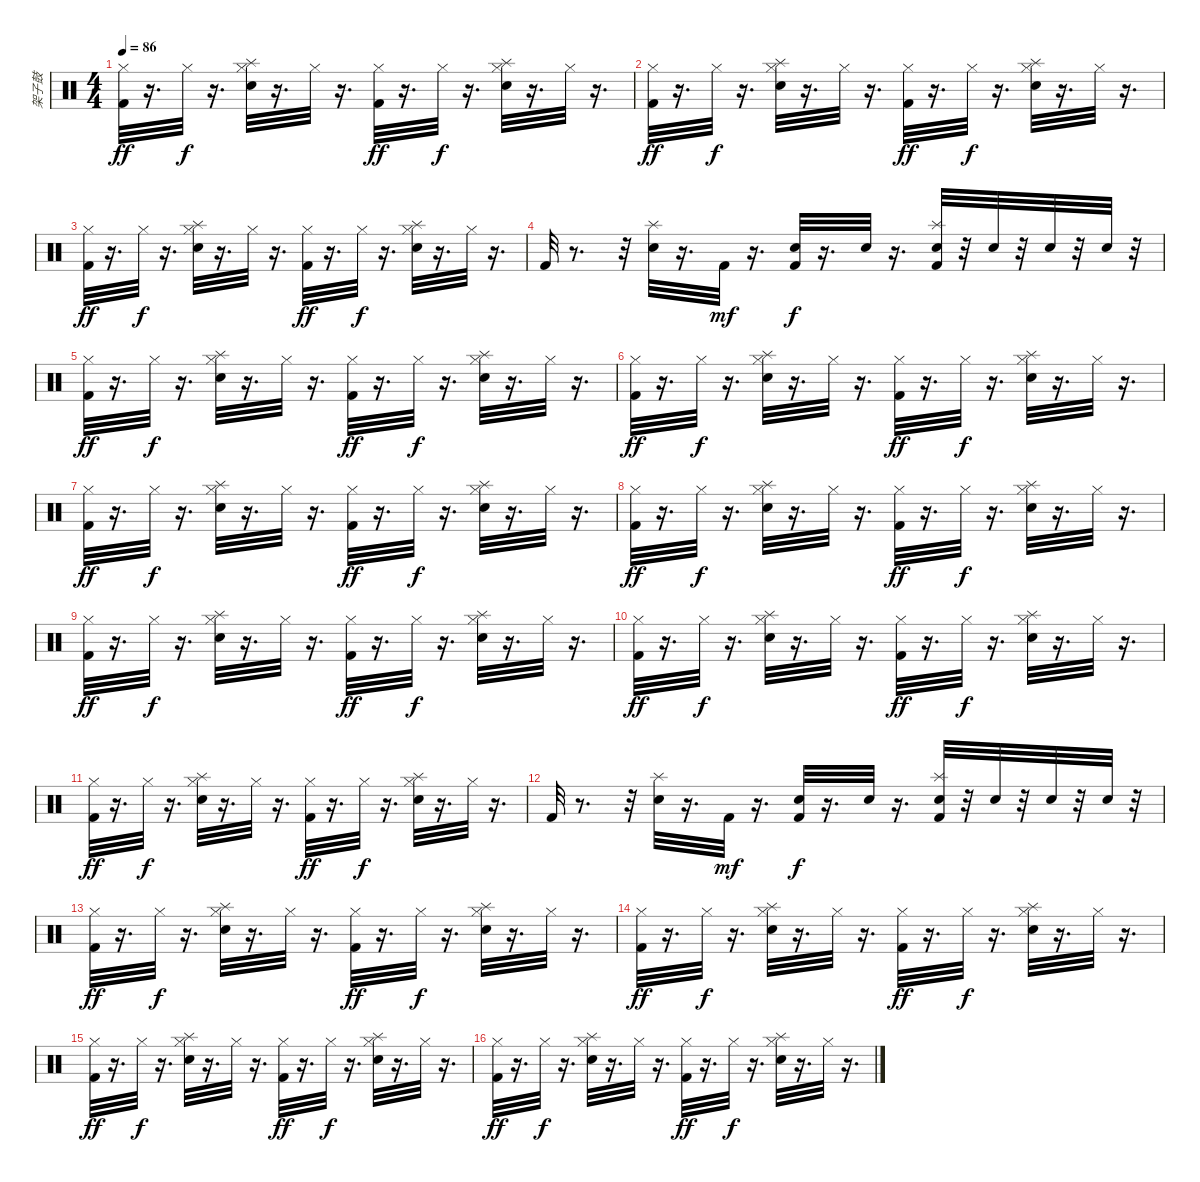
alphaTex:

\track ("架子鼓" "架子鼓") {instrument percussion}
\staff {score}
\articulation defaults
\ts (4 4)
\tempo 86
\clef neutral
\ks c
("Hi-Hat (closed)" "Kick (hit) 2").32{dy ff} r.16{d} "Hi-Hat (closed)".32{dy f} r.16{d} ("Splash (hit)" "Hi-Hat (closed)" "Electric Snare (hit)").32 r.16{d} "Hi-Hat (closed)".32 r.16{d} ("Hi-Hat (closed)" "Kick (hit) 2").32{dy ff} r.16{d} "Hi-Hat (closed)".32{dy f} r.16{d} ("Splash (hit)" "Hi-Hat (closed)" "Electric Snare (hit)").32 r.16{d} "Hi-Hat (closed)".32 r.16{d} |
("Hi-Hat (closed)" "Kick (hit) 2").32{dy ff} r.16{d} "Hi-Hat (closed)".32{dy f} r.16{d} ("Splash (hit)" "Hi-Hat (closed)" "Electric Snare (hit)").32 r.16{d} "Hi-Hat (closed)".32 r.16{d} ("Hi-Hat (closed)" "Kick (hit) 2").32{dy ff} r.16{d} "Hi-Hat (closed)".32{dy f} r.16{d} ("Splash (hit)" "Hi-Hat (closed)" "Electric Snare (hit)").32 r.16{d} "Hi-Hat (closed)".32 r.16{d} |
("Hi-Hat (closed)" "Kick (hit) 2").32{dy ff} r.16{d} "Hi-Hat (closed)".32{dy f} r.16{d} ("Splash (hit)" "Hi-Hat (closed)" "Electric Snare (hit)").32 r.16{d} "Hi-Hat (closed)".32 r.16{d} ("Hi-Hat (closed)" "Kick (hit) 2").32{dy ff} r.16{d} "Hi-Hat (closed)".32{dy f} r.16{d} ("Splash (hit)" "Hi-Hat (closed)" "Electric Snare (hit)").32 r.16{d} "Hi-Hat (closed)".32 r.16{d} |
"Kick (hit) 2".32 r.8{d} r.32 ("Splash (hit)" "Electric Snare (hit)").32 r.16{d} "Kick (hit) 2".32{dy mf} r.16{d} ("Electric Snare (hit)" "Kick (hit) 2").32{dy f} r.16{d} "Electric Snare (hit)".32 r.16{d} ("Splash (hit)" "Electric Snare (hit)" "Kick (hit) 2").32 r.32 "Electric Snare (hit)".32 r.32 "Electric Snare (hit)".32 r.32 "Electric Snare (hit)".32 r.32 |
("Hi-Hat (closed)" "Kick (hit) 2").32{dy ff} r.16{d} "Hi-Hat (closed)".32{dy f} r.16{d} ("Splash (hit)" "Hi-Hat (closed)" "Electric Snare (hit)").32 r.16{d} "Hi-Hat (closed)".32 r.16{d} ("Hi-Hat (closed)" "Kick (hit) 2").32{dy ff} r.16{d} "Hi-Hat (closed)".32{dy f} r.16{d} ("Splash (hit)" "Hi-Hat (closed)" "Electric Snare (hit)").32 r.16{d} "Hi-Hat (closed)".32 r.16{d} |
("Hi-Hat (closed)" "Kick (hit) 2").32{dy ff} r.16{d} "Hi-Hat (closed)".32{dy f} r.16{d} ("Splash (hit)" "Hi-Hat (closed)" "Electric Snare (hit)").32 r.16{d} "Hi-Hat (closed)".32 r.16{d} ("Hi-Hat (closed)" "Kick (hit) 2").32{dy ff} r.16{d} "Hi-Hat (closed)".32{dy f} r.16{d} ("Splash (hit)" "Hi-Hat (closed)" "Electric Snare (hit)").32 r.16{d} "Hi-Hat (closed)".32 r.16{d} |
("Hi-Hat (closed)" "Kick (hit) 2").32{dy ff} r.16{d} "Hi-Hat (closed)".32{dy f} r.16{d} ("Splash (hit)" "Hi-Hat (closed)" "Electric Snare (hit)").32 r.16{d} "Hi-Hat (closed)".32 r.16{d} ("Hi-Hat (closed)" "Kick (hit) 2").32{dy ff} r.16{d} "Hi-Hat (closed)".32{dy f} r.16{d} ("Splash (hit)" "Hi-Hat (closed)" "Electric Snare (hit)").32 r.16{d} "Hi-Hat (closed)".32 r.16{d} |
("Hi-Hat (closed)" "Kick (hit) 2").32{dy ff} r.16{d} "Hi-Hat (closed)".32{dy f} r.16{d} ("Splash (hit)" "Hi-Hat (closed)" "Electric Snare (hit)").32 r.16{d} "Hi-Hat (closed)".32 r.16{d} ("Hi-Hat (closed)" "Kick (hit) 2").32{dy ff} r.16{d} "Hi-Hat (closed)".32{dy f} r.16{d} ("Splash (hit)" "Hi-Hat (closed)" "Electric Snare (hit)").32 r.16{d} "Hi-Hat (closed)".32 r.16{d} |
("Hi-Hat (closed)" "Kick (hit) 2").32{dy ff} r.16{d} "Hi-Hat (closed)".32{dy f} r.16{d} ("Splash (hit)" "Hi-Hat (closed)" "Electric Snare (hit)").32 r.16{d} "Hi-Hat (closed)".32 r.16{d} ("Hi-Hat (closed)" "Kick (hit) 2").32{dy ff} r.16{d} "Hi-Hat (closed)".32{dy f} r.16{d} ("Splash (hit)" "Hi-Hat (closed)" "Electric Snare (hit)").32 r.16{d} "Hi-Hat (closed)".32 r.16{d} |
("Hi-Hat (closed)" "Kick (hit) 2").32{dy ff} r.16{d} "Hi-Hat (closed)".32{dy f} r.16{d} ("Splash (hit)" "Hi-Hat (closed)" "Electric Snare (hit)").32 r.16{d} "Hi-Hat (closed)".32 r.16{d} ("Hi-Hat (closed)" "Kick (hit) 2").32{dy ff} r.16{d} "Hi-Hat (closed)".32{dy f} r.16{d} ("Splash (hit)" "Hi-Hat (closed)" "Electric Snare (hit)").32 r.16{d} "Hi-Hat (closed)".32 r.16{d} |
("Hi-Hat (closed)" "Kick (hit) 2").32{dy ff} r.16{d} "Hi-Hat (closed)".32{dy f} r.16{d} ("Splash (hit)" "Hi-Hat (closed)" "Electric Snare (hit)").32 r.16{d} "Hi-Hat (closed)".32 r.16{d} ("Hi-Hat (closed)" "Kick (hit) 2").32{dy ff} r.16{d} "Hi-Hat (closed)".32{dy f} r.16{d} ("Splash (hit)" "Hi-Hat (closed)" "Electric Snare (hit)").32 r.16{d} "Hi-Hat (closed)".32 r.16{d} |
"Kick (hit) 2".32 r.8{d} r.32 ("Splash (hit)" "Electric Snare (hit)").32 r.16{d} "Kick (hit) 2".32{dy mf} r.16{d} ("Electric Snare (hit)" "Kick (hit) 2").32{dy f} r.16{d} "Electric Snare (hit)".32 r.16{d} ("Splash (hit)" "Electric Snare (hit)" "Kick (hit) 2").32 r.32 "Electric Snare (hit)".32 r.32 "Electric Snare (hit)".32 r.32 "Electric Snare (hit)".32 r.32 |
("Hi-Hat (closed)" "Kick (hit) 2").32{dy ff} r.16{d} "Hi-Hat (closed)".32{dy f} r.16{d} ("Splash (hit)" "Hi-Hat (closed)" "Electric Snare (hit)").32 r.16{d} "Hi-Hat (closed)".32 r.16{d} ("Hi-Hat (closed)" "Kick (hit) 2").32{dy ff} r.16{d} "Hi-Hat (closed)".32{dy f} r.16{d} ("Splash (hit)" "Hi-Hat (closed)" "Electric Snare (hit)").32 r.16{d} "Hi-Hat (closed)".32 r.16{d} |
("Hi-Hat (closed)" "Kick (hit) 2").32{dy ff} r.16{d} "Hi-Hat (closed)".32{dy f} r.16{d} ("Splash (hit)" "Hi-Hat (closed)" "Electric Snare (hit)").32 r.16{d} "Hi-Hat (closed)".32 r.16{d} ("Hi-Hat (closed)" "Kick (hit) 2").32{dy ff} r.16{d} "Hi-Hat (closed)".32{dy f} r.16{d} ("Splash (hit)" "Hi-Hat (closed)" "Electric Snare (hit)").32 r.16{d} "Hi-Hat (closed)".32 r.16{d} |
("Hi-Hat (closed)" "Kick (hit) 2").32{dy ff} r.16{d} "Hi-Hat (closed)".32{dy f} r.16{d} ("Splash (hit)" "Hi-Hat (closed)" "Electric Snare (hit)").32 r.16{d} "Hi-Hat (closed)".32 r.16{d} ("Hi-Hat (closed)" "Kick (hit) 2").32{dy ff} r.16{d} "Hi-Hat (closed)".32{dy f} r.16{d} ("Splash (hit)" "Hi-Hat (closed)" "Electric Snare (hit)").32 r.16{d} "Hi-Hat (closed)".32 r.16{d} |
("Hi-Hat (closed)" "Kick (hit) 2").32{dy ff} r.16{d} "Hi-Hat (closed)".32{dy f} r.16{d} ("Splash (hit)" "Hi-Hat (closed)" "Electric Snare (hit)").32 r.16{d} "Hi-Hat (closed)".32 r.16{d} ("Hi-Hat (closed)" "Kick (hit) 2").32{dy ff} r.16{d} "Hi-Hat (closed)".32{dy f} r.16{d} ("Splash (hit)" "Hi-Hat (closed)" "Electric Snare (hit)").32 r.16{d} "Hi-Hat (closed)".32 r.16{d}
